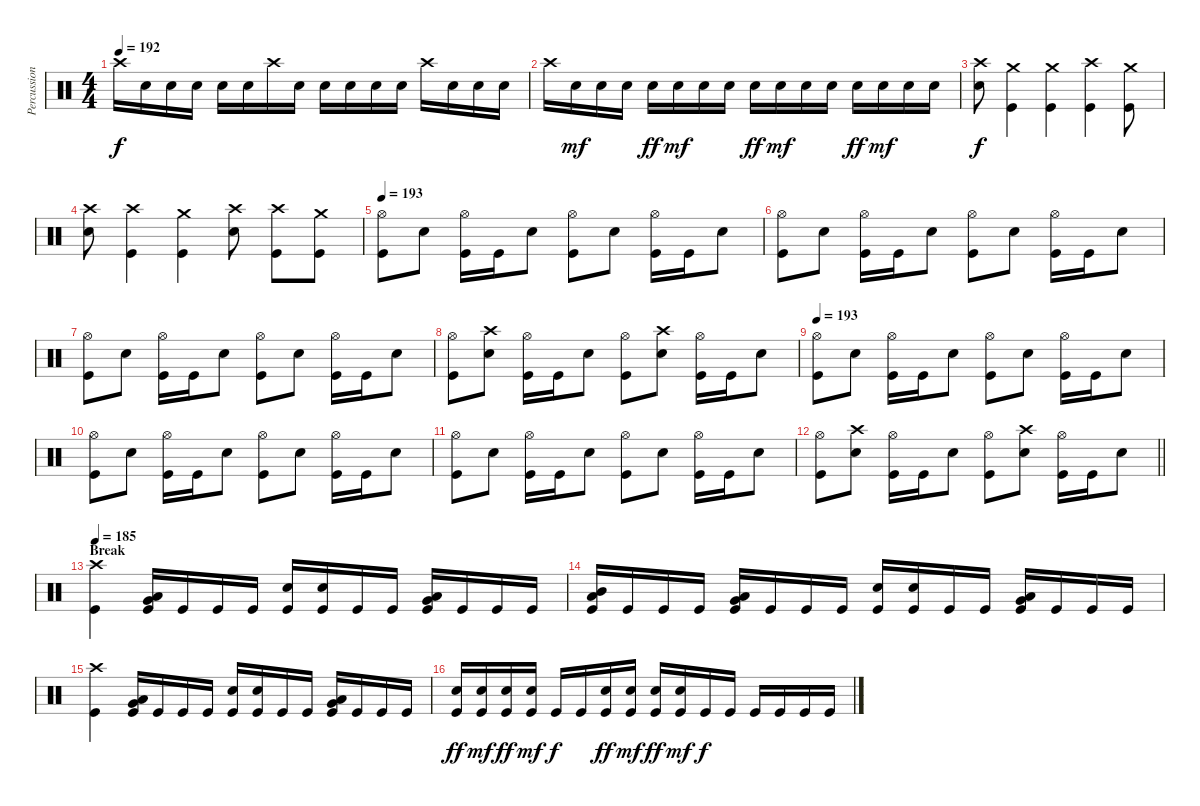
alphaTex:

\track ("Percussion" "Percussion") {instrument percussion}
\staff {score}
\articulation defaults
\ts (4 4)
\tempo 192
\clef neutral
\ks c "Crash high (hit)".16{dy f} "Snare (hit) 2".16 "Snare (hit) 2".16 "Snare (hit) 2".16 "Snare (hit) 2".16 "Snare (hit) 2".16 "Crash high (hit)".16 "Snare (hit) 2".16 "Snare (hit) 2".16 "Snare (hit) 2".16 "Snare (hit) 2".16 "Snare (hit) 2".16 "Crash high (hit)".16 "Snare (hit) 2".16 "Snare (hit) 2".16 "Snare (hit) 2".16
|
"Crash high (hit)".16 "Snare (hit) 2".16{dy mf} "Snare (hit) 2".16 "Snare (hit) 2".16 "Snare (hit) 2".16{dy ff} "Snare (hit) 2".16{dy mf} "Snare (hit) 2".16 "Snare (hit) 2".16 "Snare (hit) 2".16{dy ff} "Snare (hit) 2".16{dy mf} "Snare (hit) 2".16 "Snare (hit) 2".16 "Snare (hit) 2".16{dy ff} "Snare (hit) 2".16{dy mf} "Snare (hit) 2".16 "Snare (hit) 2".16 |
("Crash high (hit)" "Snare (hit) 2").8{dy f} ("Crash medium (hit)" "Kick (hit)").4 ("Crash medium (hit)" "Kick (hit)").4 ("Crash high (hit)" "Kick (hit)").4 ("Crash medium (hit)" "Kick (hit)").8 |
("Crash high (hit)" "Snare (hit) 2").8 ("Crash high (hit)" "Kick (hit)").4 ("Crash medium (hit)" "Kick (hit)").4 ("Snare (hit) 2" "Crash high (hit)").8 ("Crash high (hit)" "Kick (hit)").8 ("Kick (hit)" "Crash medium (hit)").8 |
\tempo 193
("Hi-Hat (open)" "Kick (hit)").8 "Snare (hit) 2".8 ("Hi-Hat (open)" "Kick (hit)").16 "Kick (hit)".16 "Snare (hit) 2".8 ("Hi-Hat (open)" "Kick (hit)").8 "Snare (hit) 2".8 ("Hi-Hat (open)" "Kick (hit)").16 "Kick (hit)".16 "Snare (hit) 2".8 |
("Hi-Hat (open)" "Kick (hit)").8 "Snare (hit) 2".8 ("Hi-Hat (open)" "Kick (hit)").16 "Kick (hit)".16 "Snare (hit) 2".8 ("Hi-Hat (open)" "Kick (hit)").8 "Snare (hit) 2".8 ("Hi-Hat (open)" "Kick (hit)").16 "Kick (hit)".16 "Snare (hit) 2".8 |
("Hi-Hat (open)" "Kick (hit)").8 "Snare (hit) 2".8 ("Hi-Hat (open)" "Kick (hit)").16 "Kick (hit)".16 "Snare (hit) 2".8 ("Hi-Hat (open)" "Kick (hit)").8 "Snare (hit) 2".8 ("Hi-Hat (open)" "Kick (hit)").16 "Kick (hit)".16 "Snare (hit) 2".8 |
("Hi-Hat (open)" "Kick (hit)").8 ("Crash high (hit)" "Snare (hit) 2").8 ("Hi-Hat (open)" "Kick (hit)").16 "Kick (hit)".16 "Snare (hit) 2".8 ("Hi-Hat (open)" "Kick (hit)").8 ("Crash high (hit)" "Snare (hit) 2").8 ("Hi-Hat (open)" "Kick (hit)").16 "Kick (hit)".16 "Snare (hit) 2".8 |
\tempo 193
("Hi-Hat (open)" "Kick (hit)").8 "Snare (hit) 2".8 ("Hi-Hat (open)" "Kick (hit)").16 "Kick (hit)".16 "Snare (hit) 2".8 ("Hi-Hat (open)" "Kick (hit)").8 "Snare (hit) 2".8 ("Hi-Hat (open)" "Kick (hit)").16 "Kick (hit)".16 "Snare (hit) 2".8 |
("Hi-Hat (open)" "Kick (hit)").8 "Snare (hit) 2".8 ("Hi-Hat (open)" "Kick (hit)").16 "Kick (hit)".16 "Snare (hit) 2".8 ("Hi-Hat (open)" "Kick (hit)").8 "Snare (hit) 2".8 ("Hi-Hat (open)" "Kick (hit)").16 "Kick (hit)".16 "Snare (hit) 2".8 |
("Hi-Hat (open)" "Kick (hit)").8 "Snare (hit) 2".8 ("Hi-Hat (open)" "Kick (hit)").16 "Kick (hit)".16 "Snare (hit) 2".8 ("Hi-Hat (open)" "Kick (hit)").8 "Snare (hit) 2".8 ("Hi-Hat (open)" "Kick (hit)").16 "Kick (hit)".16 "Snare (hit) 2".8 |
\barLineRight lightlight
("Hi-Hat (open)" "Kick (hit)").8 ("Crash high (hit)" "Snare (hit) 2").8 ("Hi-Hat (open)" "Kick (hit)").16 "Kick (hit)".16 "Snare (hit) 2".8 ("Hi-Hat (open)" "Kick (hit)").8 ("Crash high (hit)" "Snare (hit) 2").8 ("Hi-Hat (open)" "Kick (hit)").16 "Kick (hit)".16 "Snare (hit) 2".8 |
\section ("" "Break")
\tempo 185
("Crash high (hit)" "Kick (hit)").4 ("Very Low Tom (hit)" "Low Tom (hit)" "Kick (hit)").16 "Kick (hit)".16 "Kick (hit)".16 "Kick (hit)".16 ("Snare (hit) 2" "Kick (hit)").16 ("Snare (hit) 2" "Kick (hit)").16 "Kick (hit)".16 "Kick (hit)".16 ("Low Tom (hit)" "Very Low Tom (hit)" "Kick (hit)").16 "Kick (hit)".16 "Kick (hit)".16 "Kick (hit)".16 |
("Mid Tom (hit)" "Low Tom (hit)" "Kick (hit)").16 "Kick (hit)".16 "Kick (hit)".16 "Kick (hit)".16 ("Low Tom (hit)" "Very Low Tom (hit)" "Kick (hit)").16 "Kick (hit)".16 "Kick (hit)".16 "Kick (hit)".16 ("Snare (hit) 2" "Kick (hit)").16 ("Snare (hit) 2" "Kick (hit)").16 "Kick (hit)".16 "Kick (hit)".16 ("Very Low Tom (hit)" "Low Tom (hit)" "Kick (hit)").16 "Kick (hit)".16 "Kick (hit)".16 "Kick (hit)".16 |
("Crash high (hit)" "Kick (hit)").4 ("Very Low Tom (hit)" "Low Tom (hit)" "Kick (hit)").16 "Kick (hit)".16 "Kick (hit)".16 "Kick (hit)".16 ("Snare (hit) 2" "Kick (hit)").16 ("Snare (hit) 2" "Kick (hit)").16 "Kick (hit)".16 "Kick (hit)".16 ("Low Tom (hit)" "Very Low Tom (hit)" "Kick (hit)").16 "Kick (hit)".16 "Kick (hit)".16 "Kick (hit)".16 |
("Snare (hit) 2" "Kick (hit)").16{dy ff} ("Snare (hit) 2" "Kick (hit)").16{dy mf} ("Snare (hit) 2" "Kick (hit)").16{dy ff} ("Snare (hit) 2" "Kick (hit)").16{dy mf} "Kick (hit)".16{dy f} "Kick (hit)".16 ("Snare (hit) 2" "Kick (hit)").16{dy ff} ("Snare (hit) 2" "Kick (hit)").16{dy mf} ("Snare (hit) 2" "Kick (hit)").16{dy ff} ("Snare (hit) 2" "Kick (hit)").16{dy mf} "Kick (hit)".16{dy f} "Kick (hit)".16 "Kick (hit)".16 "Kick (hit)".16 "Kick (hit)".16 "Kick (hit)".16
